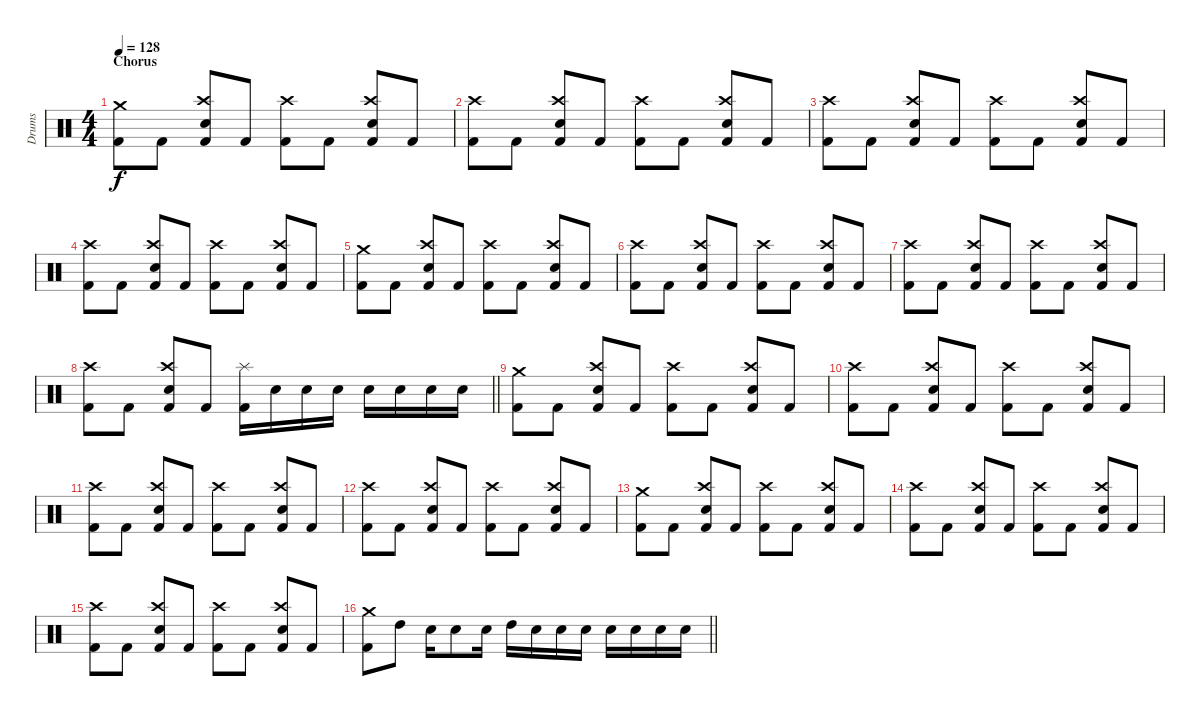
\track ("Drums" "Drums") {instrument percussion}
\staff {score}
\articulation defaults
\ts (4 4)
\section ("" "Chorus")
\tempo 128
\clef neutral
\ks c
("Crash medium (hit)" "Kick (hit) 2").8{dy f} "Kick (hit) 2".8 ("Crash high (hit)" "Electric Snare (hit)" "Kick (hit) 2").8 "Kick (hit) 2".8 ("Crash high (hit)" "Kick (hit) 2").8 "Kick (hit) 2".8 ("Crash high (hit)" "Electric Snare (hit)" "Kick (hit) 2").8 "Kick (hit) 2".8 |
("Crash high (hit)" "Kick (hit) 2").8 "Kick (hit) 2".8 ("Crash high (hit)" "Electric Snare (hit)" "Kick (hit) 2").8 "Kick (hit) 2".8 ("Crash high (hit)" "Kick (hit) 2").8 "Kick (hit) 2".8 ("Crash high (hit)" "Electric Snare (hit)" "Kick (hit) 2").8 "Kick (hit) 2".8 |
("Crash high (hit)" "Kick (hit) 2").8 "Kick (hit) 2".8 ("Crash high (hit)" "Electric Snare (hit)" "Kick (hit) 2").8 "Kick (hit) 2".8 ("Crash high (hit)" "Kick (hit) 2").8 "Kick (hit) 2".8 ("Crash high (hit)" "Electric Snare (hit)" "Kick (hit) 2").8 "Kick (hit) 2".8 |
("Crash high (hit)" "Kick (hit) 2").8 "Kick (hit) 2".8 ("Crash high (hit)" "Electric Snare (hit)" "Kick (hit) 2").8 "Kick (hit) 2".8 ("Crash high (hit)" "Kick (hit) 2").8 "Kick (hit) 2".8 ("Crash high (hit)" "Electric Snare (hit)" "Kick (hit) 2").8 "Kick (hit) 2".8 |
("Crash medium (hit)" "Kick (hit) 2").8 "Kick (hit) 2".8 ("Crash high (hit)" "Electric Snare (hit)" "Kick (hit) 2").8 "Kick (hit) 2".8 ("Crash high (hit)" "Kick (hit) 2").8 "Kick (hit) 2".8 ("Crash high (hit)" "Electric Snare (hit)" "Kick (hit) 2").8 "Kick (hit) 2".8 |
("Crash high (hit)" "Kick (hit) 2").8 "Kick (hit) 2".8 ("Crash high (hit)" "Electric Snare (hit)" "Kick (hit) 2").8 "Kick (hit) 2".8 ("Crash high (hit)" "Kick (hit) 2").8 "Kick (hit) 2".8 ("Crash high (hit)" "Electric Snare (hit)" "Kick (hit) 2").8 "Kick (hit) 2".8 |
("Crash high (hit)" "Kick (hit) 2").8 "Kick (hit) 2".8 ("Crash high (hit)" "Electric Snare (hit)" "Kick (hit) 2").8 "Kick (hit) 2".8 ("Crash high (hit)" "Kick (hit) 2").8 "Kick (hit) 2".8 ("Crash high (hit)" "Electric Snare (hit)" "Kick (hit) 2").8 "Kick (hit) 2".8 |
\barLineRight lightlight
("Crash high (hit)" "Kick (hit) 2").8 "Kick (hit) 2".8 ("Crash high (hit)" "Electric Snare (hit)" "Kick (hit) 2").8 "Kick (hit) 2".8 ("Splash (hit)" "Kick (hit) 2").16 "Electric Snare (hit)".16 "Electric Snare (hit)".16 "Electric Snare (hit)".16 "Electric Snare (hit)".16 "Electric Snare (hit)".16 "Electric Snare (hit)".16 "Electric Snare (hit)".16 |
\section ("" "")
("Crash medium (hit)" "Kick (hit) 2").8 "Kick (hit) 2".8 ("Crash high (hit)" "Electric Snare (hit)" "Kick (hit) 2").8 "Kick (hit) 2".8 ("Crash high (hit)" "Kick (hit) 2").8 "Kick (hit) 2".8 ("Crash high (hit)" "Electric Snare (hit)" "Kick (hit) 2").8 "Kick (hit) 2".8 |
("Crash high (hit)" "Kick (hit) 2").8 "Kick (hit) 2".8 ("Crash high (hit)" "Electric Snare (hit)" "Kick (hit) 2").8 "Kick (hit) 2".8 ("Crash high (hit)" "Kick (hit) 2").8 "Kick (hit) 2".8 ("Crash high (hit)" "Electric Snare (hit)" "Kick (hit) 2").8 "Kick (hit) 2".8 |
("Crash high (hit)" "Kick (hit) 2").8 "Kick (hit) 2".8 ("Crash high (hit)" "Electric Snare (hit)" "Kick (hit) 2").8 "Kick (hit) 2".8 ("Crash high (hit)" "Kick (hit) 2").8 "Kick (hit) 2".8 ("Crash high (hit)" "Electric Snare (hit)" "Kick (hit) 2").8 "Kick (hit) 2".8 |
("Crash high (hit)" "Kick (hit) 2").8 "Kick (hit) 2".8 ("Crash high (hit)" "Electric Snare (hit)" "Kick (hit) 2").8 "Kick (hit) 2".8 ("Crash high (hit)" "Kick (hit) 2").8 "Kick (hit) 2".8 ("Crash high (hit)" "Electric Snare (hit)" "Kick (hit) 2").8 "Kick (hit) 2".8 |
("Crash medium (hit)" "Kick (hit) 2").8 "Kick (hit) 2".8 ("Crash high (hit)" "Electric Snare (hit)" "Kick (hit) 2").8 "Kick (hit) 2".8 ("Crash high (hit)" "Kick (hit) 2").8 "Kick (hit) 2".8 ("Crash high (hit)" "Electric Snare (hit)" "Kick (hit) 2").8 "Kick (hit) 2".8 |
("Crash high (hit)" "Kick (hit) 2").8 "Kick (hit) 2".8 ("Crash high (hit)" "Electric Snare (hit)" "Kick (hit) 2").8 "Kick (hit) 2".8 ("Crash high (hit)" "Kick (hit) 2").8 "Kick (hit) 2".8 ("Crash high (hit)" "Electric Snare (hit)" "Kick (hit) 2").8 "Kick (hit) 2".8 |
("Crash high (hit)" "Kick (hit) 2").8 "Kick (hit) 2".8 ("Crash high (hit)" "Electric Snare (hit)" "Kick (hit) 2").8 "Kick (hit) 2".8 ("Crash high (hit)" "Kick (hit) 2").8 "Kick (hit) 2".8 ("Crash high (hit)" "Electric Snare (hit)" "Kick (hit) 2").8 "Kick (hit) 2".8 |
\barLineRight lightlight
("Crash medium (hit)" "Kick (hit) 2").8 "High Tom (hit)".8 "Electric Snare (hit)".16 "Electric Snare (hit)".8 "Electric Snare (hit)".16 "High Tom (hit)".16 "Electric Snare (hit)".16 "Electric Snare (hit)".16 "Electric Snare (hit)".16 "Electric Snare (hit)".16 "Electric Snare (hit)".16 "Electric Snare (hit)".16 "Electric Snare (hit)".16
